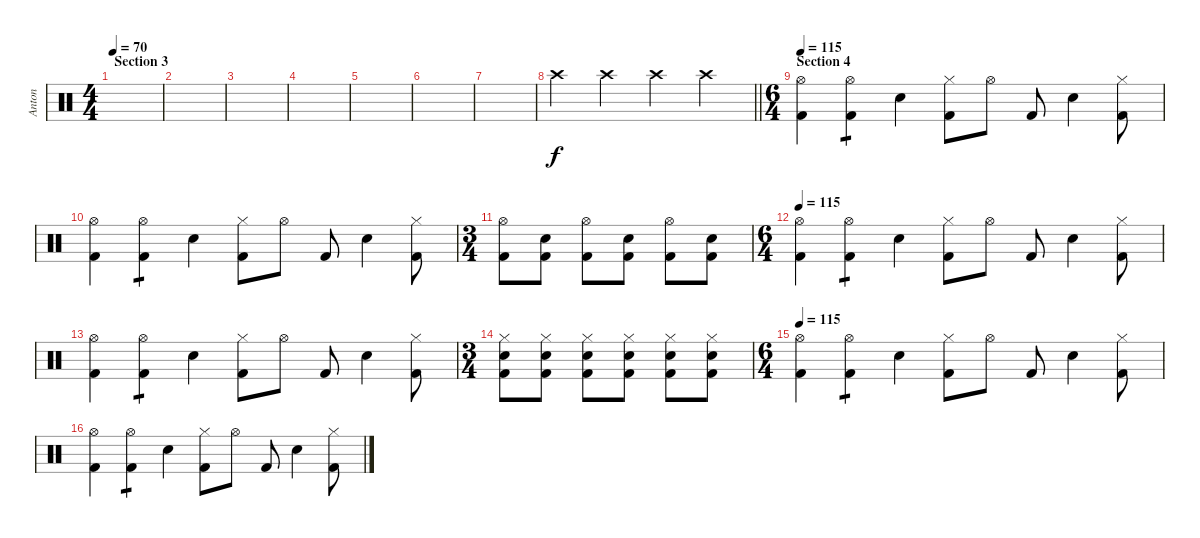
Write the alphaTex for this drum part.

\track ("Anton" "Anton") {instrument percussion}
\staff {score}
\articulation defaults
\ts (4 4)
\section ("" "Section 3")
\tempo 70
\clef neutral
\ks c
|
|
|
|
|
|
|
\barLineRight lightlight "Crash high (hit)".4 "Crash high (hit)".4 "Crash high (hit)".4 "Crash high (hit)".4
|
\ts (6 4)
\section ("" "Section 4")
\tempo 115
("Hi-Hat (open)" "Kick (hit) 2").4 ("Hi-Hat (open)" "Kick (hit) 2").4{tp 1} "Electric Snare (hit)".4 ("Hi-Hat (closed)" "Kick (hit) 2").8 "Hi-Hat (open)".8 "Kick (hit) 2".8 "Electric Snare (hit)".4 ("Hi-Hat (closed)" "Kick (hit) 2").8 |
("Hi-Hat (open)" "Kick (hit) 2").4 ("Hi-Hat (open)" "Kick (hit) 2").4{tp 1} "Electric Snare (hit)".4 ("Hi-Hat (closed)" "Kick (hit) 2").8 "Hi-Hat (open)".8 "Kick (hit) 2".8 "Electric Snare (hit)".4 ("Hi-Hat (closed)" "Kick (hit) 2").8 |
\ts (3 4)
("Hi-Hat (open)" "Kick (hit) 2").8 ("Electric Snare (hit)" "Kick (hit) 2").8 ("Hi-Hat (open)" "Kick (hit) 2").8 ("Electric Snare (hit)" "Kick (hit) 2").8 ("Hi-Hat (open)" "Kick (hit) 2").8 ("Electric Snare (hit)" "Kick (hit) 2").8 |
\ts (6 4)
\tempo 115
("Hi-Hat (open)" "Kick (hit) 2").4 ("Hi-Hat (open)" "Kick (hit) 2").4{tp 1} "Electric Snare (hit)".4 ("Hi-Hat (closed)" "Kick (hit) 2").8 "Hi-Hat (open)".8 "Kick (hit) 2".8 "Electric Snare (hit)".4 ("Hi-Hat (closed)" "Kick (hit) 2").8 |
("Hi-Hat (open)" "Kick (hit) 2").4 ("Hi-Hat (open)" "Kick (hit) 2").4{tp 1} "Electric Snare (hit)".4 ("Hi-Hat (closed)" "Kick (hit) 2").8 "Hi-Hat (open)".8 "Kick (hit) 2".8 "Electric Snare (hit)".4 ("Hi-Hat (closed)" "Kick (hit) 2").8 |
\ts (3 4)
("Hi-Hat (closed)" "Electric Snare (hit)" "Kick (hit) 2").8 ("Hi-Hat (closed)" "Electric Snare (hit)" "Kick (hit) 2").8 ("Hi-Hat (closed)" "Electric Snare (hit)" "Kick (hit) 2").8 ("Hi-Hat (closed)" "Electric Snare (hit)" "Kick (hit) 2").8 ("Hi-Hat (closed)" "Electric Snare (hit)" "Kick (hit) 2").8 ("Hi-Hat (closed)" "Electric Snare (hit)" "Kick (hit) 2").8 |
\ts (6 4)
\tempo 115
("Hi-Hat (open)" "Kick (hit) 2").4 ("Hi-Hat (open)" "Kick (hit) 2").4{tp 1} "Electric Snare (hit)".4 ("Hi-Hat (closed)" "Kick (hit) 2").8 "Hi-Hat (open)".8 "Kick (hit) 2".8 "Electric Snare (hit)".4 ("Hi-Hat (closed)" "Kick (hit) 2").8 |
("Hi-Hat (open)" "Kick (hit) 2").4 ("Hi-Hat (open)" "Kick (hit) 2").4{tp 1} "Electric Snare (hit)".4 ("Hi-Hat (closed)" "Kick (hit) 2").8 "Hi-Hat (open)".8 "Kick (hit) 2".8 "Electric Snare (hit)".4 ("Hi-Hat (closed)" "Kick (hit) 2").8
